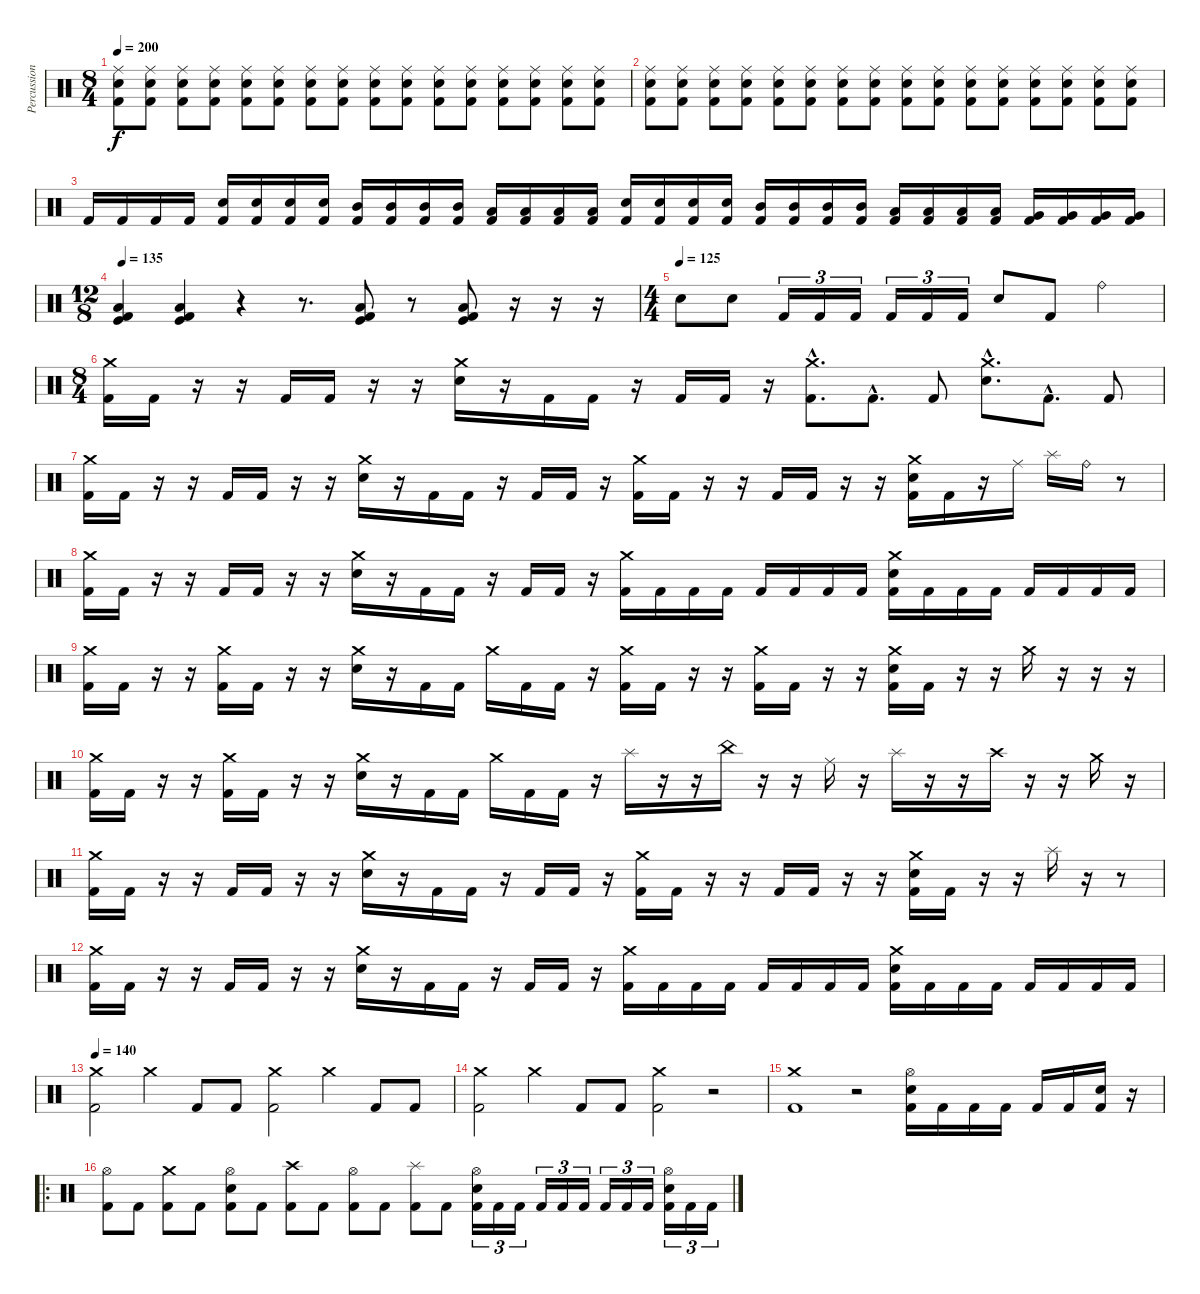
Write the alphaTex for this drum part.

\track ("Percussion" "Percussion") {instrument percussion}
\staff {score}
\articulation defaults
\ts (8 4)
\tempo 200
\clef neutral
\ks c
("Ride (middle)" "Electric Snare (hit)" "Kick (hit) 2").8{dy f} ("Ride (middle)" "Electric Snare (hit)" "Kick (hit) 2").8 ("Ride (middle)" "Electric Snare (hit)" "Kick (hit) 2").8 ("Ride (middle)" "Electric Snare (hit)" "Kick (hit) 2").8 ("Ride (middle)" "Electric Snare (hit)" "Kick (hit) 2").8 ("Ride (middle)" "Electric Snare (hit)" "Kick (hit) 2").8 ("Ride (middle)" "Electric Snare (hit)" "Kick (hit) 2").8 ("Ride (middle)" "Electric Snare (hit)" "Kick (hit) 2").8 ("Ride (middle)" "Electric Snare (hit)" "Kick (hit) 2").8 ("Ride (middle)" "Electric Snare (hit)" "Kick (hit) 2").8 ("Ride (middle)" "Electric Snare (hit)" "Kick (hit) 2").8 ("Ride (middle)" "Electric Snare (hit)" "Kick (hit) 2").8 ("Ride (middle)" "Electric Snare (hit)" "Kick (hit) 2").8 ("Ride (middle)" "Electric Snare (hit)" "Kick (hit) 2").8 ("Ride (middle)" "Electric Snare (hit)" "Kick (hit) 2").8 ("Ride (middle)" "Electric Snare (hit)" "Kick (hit) 2").8 |
("Ride (middle)" "Electric Snare (hit)" "Kick (hit) 2").8 ("Ride (middle)" "Electric Snare (hit)" "Kick (hit) 2").8 ("Ride (middle)" "Electric Snare (hit)" "Kick (hit) 2").8 ("Ride (middle)" "Electric Snare (hit)" "Kick (hit) 2").8 ("Ride (middle)" "Electric Snare (hit)" "Kick (hit) 2").8 ("Ride (middle)" "Electric Snare (hit)" "Kick (hit) 2").8 ("Ride (middle)" "Electric Snare (hit)" "Kick (hit) 2").8 ("Ride (middle)" "Electric Snare (hit)" "Kick (hit) 2").8 ("Ride (middle)" "Electric Snare (hit)" "Kick (hit) 2").8 ("Ride (middle)" "Electric Snare (hit)" "Kick (hit) 2").8 ("Ride (middle)" "Electric Snare (hit)" "Kick (hit) 2").8 ("Ride (middle)" "Electric Snare (hit)" "Kick (hit) 2").8 ("Ride (middle)" "Electric Snare (hit)" "Kick (hit) 2").8 ("Ride (middle)" "Electric Snare (hit)" "Kick (hit) 2").8 ("Ride (middle)" "Electric Snare (hit)" "Kick (hit) 2").8 ("Ride (middle)" "Electric Snare (hit)" "Kick (hit) 2").8 |
"Kick (hit) 2".16 "Kick (hit) 2".16 "Kick (hit) 2".16 "Kick (hit) 2".16 ("Electric Snare (hit)" "Kick (hit) 2").16 ("Electric Snare (hit)" "Kick (hit) 2").16 ("Electric Snare (hit)" "Kick (hit) 2").16 ("Electric Snare (hit)" "Kick (hit) 2").16 ("Mid Tom (hit)" "Kick (hit) 2").16 ("Mid Tom (hit)" "Kick (hit) 2").16 ("Mid Tom (hit)" "Kick (hit) 2").16 ("Mid Tom (hit)" "Kick (hit) 2").16 ("Low Tom (hit)" "Kick (hit) 2").16 ("Low Tom (hit)" "Kick (hit) 2").16 ("Low Tom (hit)" "Kick (hit) 2").16 ("Low Tom (hit)" "Kick (hit) 2").16 ("Electric Snare (hit)" "Kick (hit) 2").16 ("Electric Snare (hit)" "Kick (hit) 2").16 ("Electric Snare (hit)" "Kick (hit) 2").16 ("Electric Snare (hit)" "Kick (hit) 2").16 ("Mid Tom (hit)" "Kick (hit) 2").16 ("Mid Tom (hit)" "Kick (hit) 2").16 ("Mid Tom (hit)" "Kick (hit) 2").16 ("Mid Tom (hit)" "Kick (hit) 2").16 ("Low Tom (hit)" "Kick (hit) 2").16 ("Low Tom (hit)" "Kick (hit) 2").16 ("Low Tom (hit)" "Kick (hit) 2").16 ("Low Tom (hit)" "Kick (hit) 2").16 ("Very Low Tom (hit)" "Kick (hit) 2").16 ("Very Low Tom (hit)" "Kick (hit) 2").16 ("Very Low Tom (hit)" "Kick (hit) 2").16 ("Very Low Tom (hit)" "Kick (hit) 2").16 |
\ts (12 8)
\tempo 135
("Low Floor Tom (hit)" "Kick (hit)" "Kick (hit) 2").4 ("Low Floor Tom (hit)" "Kick (hit)" "Kick (hit) 2").4 r.4 r.8{d} ("Low Floor Tom (hit)" "Kick (hit)" "Kick (hit) 2").8 r.8 ("Low Floor Tom (hit)" "Kick (hit)" "Kick (hit) 2").8 r.16 r.16 r.16 |
\ts (4 4)
\tempo (125)
"Electric Snare (hit)".8 "Electric Snare (hit)".8 "Kick (hit) 2".16{tu (3 2)} "Kick (hit) 2".16{tu (3 2)} "Kick (hit) 2".16{tu (3 2)} "Kick (hit) 2".16{tu (3 2)} "Kick (hit) 2".16{tu (3 2)} "Kick (hit) 2".16{tu (3 2)} "Electric Snare (hit)".8 "Kick (hit) 2".8 "Ride (bell)".4 |
\ts (8 4)
("Crash medium (hit)" "Kick (hit) 2").16 "Kick (hit) 2".16 r.16 r.16 "Kick (hit) 2".16 "Kick (hit) 2".16 r.16 r.16 ("Crash medium (hit)" "Electric Snare (hit)").16 r.16 "Kick (hit) 2".16 "Kick (hit) 2".16 r.16 "Kick (hit) 2".16 "Kick (hit) 2".16 r.16 ("Crash medium (hit)"{hac} "Kick (hit) 2"{hac}).8{d} "Kick (hit) 2"{hac}.8{d} "Kick (hit) 2".8 ("Crash medium (hit)"{hac} "Electric Snare (hit)"{hac}).8{d} "Kick (hit) 2"{hac}.8{d} "Kick (hit) 2".8 |
("Crash medium (hit)" "Kick (hit) 2").16 "Kick (hit) 2".16 r.16 r.16 "Kick (hit) 2".16 "Kick (hit) 2".16 r.16 r.16 ("Crash medium (hit)" "Electric Snare (hit)").16 r.16 "Kick (hit) 2".16 "Kick (hit) 2".16 r.16 "Kick (hit) 2".16 "Kick (hit) 2".16 r.16 ("Crash medium (hit)" "Kick (hit) 2").16 "Kick (hit) 2".16 r.16 r.16 "Kick (hit) 2".16 "Kick (hit) 2".16 r.16 r.16 ("Crash medium (hit)" "Electric Snare (hit)" "Kick (hit) 2").16 "Kick (hit) 2".16 r.16 "Ride (middle)".16 "Splash (hit)".16 "Ride (bell)".16 r.8 |
("Crash medium (hit)" "Kick (hit) 2").16 "Kick (hit) 2".16 r.16 r.16 "Kick (hit) 2".16 "Kick (hit) 2".16 r.16 r.16 ("Crash medium (hit)" "Electric Snare (hit)").16 r.16 "Kick (hit) 2".16 "Kick (hit) 2".16 r.16 "Kick (hit) 2".16 "Kick (hit) 2".16 r.16 ("Crash medium (hit)" "Kick (hit) 2").16 "Kick (hit) 2".16 "Kick (hit) 2".16 "Kick (hit) 2".16 "Kick (hit) 2".16 "Kick (hit) 2".16 "Kick (hit) 2".16 "Kick (hit) 2".16 ("Crash medium (hit)" "Electric Snare (hit)" "Kick (hit) 2").16 "Kick (hit) 2".16 "Kick (hit) 2".16 "Kick (hit) 2".16 "Kick (hit) 2".16 "Kick (hit) 2".16 "Kick (hit) 2".16 "Kick (hit) 2".16 |
("Crash medium (hit)" "Kick (hit) 2").16 "Kick (hit) 2".16 r.16 r.16 ("Crash medium (hit)" "Kick (hit) 2").16 "Kick (hit) 2".16 r.16 r.16 ("Crash medium (hit)" "Electric Snare (hit)").16 r.16 "Kick (hit) 2".16 "Kick (hit) 2".16 "Crash medium (hit)".16 "Kick (hit) 2".16 "Kick (hit) 2".16 r.16 ("Crash medium (hit)" "Kick (hit) 2").16 "Kick (hit) 2".16 r.16 r.16 ("Crash medium (hit)" "Kick (hit) 2").16 "Kick (hit) 2".16 r.16 r.16 ("Crash medium (hit)" "Electric Snare (hit)" "Kick (hit) 2").16 "Kick (hit) 2".16 r.16 r.16 "Crash medium (hit)".16 r.16 r.16 r.16 |
("Crash medium (hit)" "Kick (hit) 2").16 "Kick (hit) 2".16 r.16 r.16 ("Crash medium (hit)" "Kick (hit) 2").16 "Kick (hit) 2".16 r.16 r.16 ("Crash medium (hit)" "Electric Snare (hit)").16 r.16 "Kick (hit) 2".16 "Kick (hit) 2".16 "Crash medium (hit)".16 "Kick (hit) 2".16 "Kick (hit) 2".16 r.16 "Splash (hit)".16 r.16 r.16 "China (hit)".16 r.16 r.16 "Ride (middle)".16 r.16 "Splash (hit)".16 r.16 r.16 "Crash high (hit)".16 r.16 r.16 "Crash medium (hit)".16 r.16 |
("Crash medium (hit)" "Kick (hit) 2").16 "Kick (hit) 2".16 r.16 r.16 "Kick (hit) 2".16 "Kick (hit) 2".16 r.16 r.16 ("Crash medium (hit)" "Electric Snare (hit)").16 r.16 "Kick (hit) 2".16 "Kick (hit) 2".16 r.16 "Kick (hit) 2".16 "Kick (hit) 2".16 r.16 ("Crash medium (hit)" "Kick (hit) 2").16 "Kick (hit) 2".16 r.16 r.16 "Kick (hit) 2".16 "Kick (hit) 2".16 r.16 r.16 ("Crash medium (hit)" "Electric Snare (hit)" "Kick (hit) 2").16 "Kick (hit) 2".16 r.16 r.16 "Splash (hit)".16 r.16 r.8 |
("Crash medium (hit)" "Kick (hit) 2").16 "Kick (hit) 2".16 r.16 r.16 "Kick (hit) 2".16 "Kick (hit) 2".16 r.16 r.16 ("Crash medium (hit)" "Electric Snare (hit)").16 r.16 "Kick (hit) 2".16 "Kick (hit) 2".16 r.16 "Kick (hit) 2".16 "Kick (hit) 2".16 r.16 ("Crash medium (hit)" "Kick (hit) 2").16 "Kick (hit) 2".16 "Kick (hit) 2".16 "Kick (hit) 2".16 "Kick (hit) 2".16 "Kick (hit) 2".16 "Kick (hit) 2".16 "Kick (hit) 2".16 ("Crash medium (hit)" "Electric Snare (hit)" "Kick (hit) 2").16 "Kick (hit) 2".16 "Kick (hit) 2".16 "Kick (hit) 2".16 "Kick (hit) 2".16 "Kick (hit) 2".16 "Kick (hit) 2".16 "Kick (hit) 2".16 |
\tempo 140
("Crash medium (hit)" "Kick (hit) 2").2 "Crash medium (hit)".4 "Kick (hit) 2".8 "Kick (hit) 2".8 ("Crash medium (hit)" "Kick (hit) 2").2 "Crash medium (hit)".4 "Kick (hit) 2".8 "Kick (hit) 2".8 |
("Crash medium (hit)" "Kick (hit) 2").2 "Crash medium (hit)".4 "Kick (hit) 2".8 "Kick (hit) 2".8 ("Crash medium (hit)" "Kick (hit) 2").2 r.2 |
("Crash medium (hit)" "Kick (hit) 2").1 r.2 ("Hi-Hat (open)" "Electric Snare (hit)" "Kick (hit) 2").16 "Kick (hit) 2".16 "Kick (hit) 2".16 "Kick (hit) 2".16 "Kick (hit) 2".16 "Kick (hit) 2".16 ("Electric Snare (hit)" "Kick (hit) 2").16 r.16 |
\ro
("Hi-Hat (open)" "Kick (hit) 2").8 "Kick (hit) 2".8 ("Crash medium (hit)" "Kick (hit) 2").8 "Kick (hit) 2".8 ("Hi-Hat (open)" "Electric Snare (hit)" "Kick (hit) 2").8 "Kick (hit) 2".8 ("Crash high (hit)" "Kick (hit) 2").8 "Kick (hit) 2".8 ("Hi-Hat (open)" "Kick (hit) 2").8 "Kick (hit) 2".8 ("Splash (hit)" "Kick (hit) 2").8 "Kick (hit) 2".8 ("Hi-Hat (open)" "Electric Snare (hit)" "Kick (hit) 2").16{tu (3 2)} "Kick (hit) 2".16{tu (3 2)} "Kick (hit) 2".16{tu (3 2)} "Kick (hit) 2".16{tu (3 2)} "Kick (hit) 2".16{tu (3 2)} "Kick (hit) 2".16{tu (3 2)} "Kick (hit) 2".16{tu (3 2)} "Kick (hit) 2".16{tu (3 2)} "Kick (hit) 2".16{tu (3 2)} ("Hi-Hat (open)" "Electric Snare (hit)" "Kick (hit) 2").16{tu (3 2)} "Kick (hit) 2".16{tu (3 2)} "Kick (hit) 2".16{tu (3 2)}
